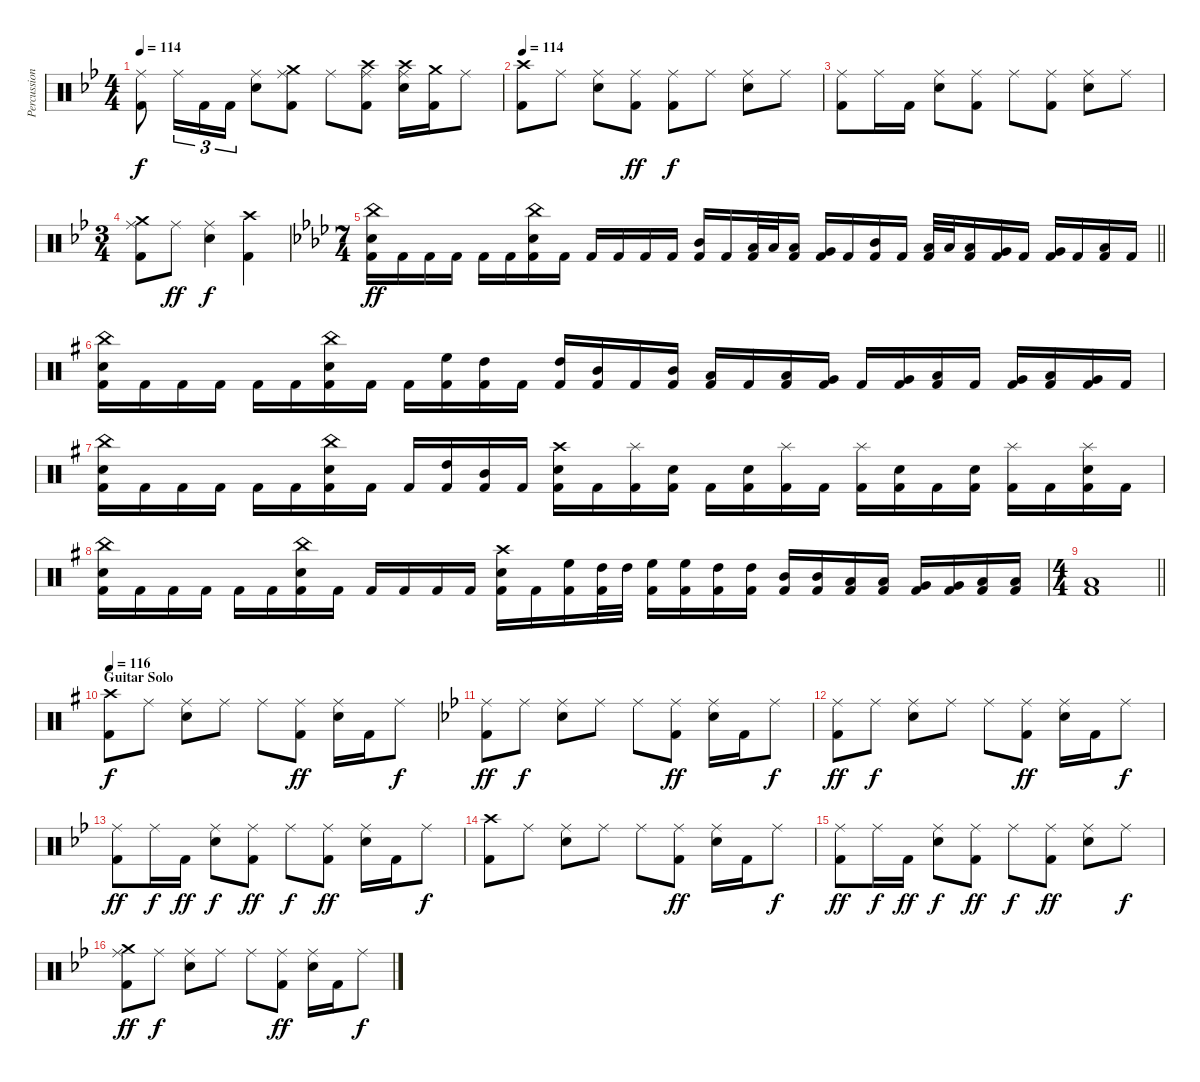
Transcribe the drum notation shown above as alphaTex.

\track ("Percussions" "Percussion") {instrument percussion}
\staff {score}
\articulation defaults
\ts (4 4)
\tempo 114
\clef neutral
\ks bb
("Ride (middle)" "Kick (hit) 2").8{dy f} "Ride (middle)".16{tu (3 2)} "Kick (hit) 2".16{tu (3 2)} "Kick (hit) 2".16{tu (3 2)} ("Ride (middle)" "Snare (hit) 2").8 ("Crash medium (hit)" "Ride (middle)" "Kick (hit) 2").8 "Ride (middle)".8 ("Crash high (hit)" "Ride (middle)" "Kick (hit) 2").8 ("Crash high (hit)" "Ride (middle)" "Snare (hit) 2").16 ("Crash medium (hit)" "Kick (hit) 2").16 "Ride (middle)".8 |
\tempo 114
("Crash high (hit)" "Kick (hit) 2").8 "Ride (middle)".8 ("Ride (middle)" "Snare (hit) 2").8 ("Ride (middle)" "Kick (hit) 2").8{dy ff} ("Ride (middle)" "Kick (hit) 2").8{dy f} "Ride (middle)".8 ("Ride (middle)" "Snare (hit) 2").8 "Ride (middle)".8 |
("Ride (middle)" "Kick (hit) 2").8 "Ride (middle)".16 "Kick (hit) 2".16 ("Ride (middle)" "Snare (hit) 2").8 ("Ride (middle)" "Kick (hit) 2").8 "Ride (middle)".8 ("Ride (middle)" "Kick (hit) 2").8 ("Ride (middle)" "Snare (hit) 2").8 "Ride (middle)".8 |
\ts (3 4)
("Crash medium (hit)" "Ride (middle)" "Kick (hit) 2").8 "Ride (middle)".8{dy ff} ("Ride (middle)" "Snare (hit) 2").4{dy f} ("Crash high (hit)" "Kick (hit) 2").4 |
\ts (7 4)
\barLineRight lightlight
\ks ab
("China (hit)" "Snare (hit) 2" "Kick (hit) 2").16{dy ff} "Kick (hit) 2".16 "Kick (hit) 2".16 "Kick (hit) 2".16 "Kick (hit) 2".16 "Kick (hit) 2".16 ("China (hit)" "Snare (hit) 2" "Kick (hit) 2").16 "Kick (hit) 2".16 "Kick (hit) 2".16 "Kick (hit) 2".16 "Kick (hit) 2".16 "Kick (hit) 2".16 ("Mid Tom (hit)" "Kick (hit) 2").16 "Kick (hit) 2".16 ("Low Tom (hit)" "Kick (hit) 2").32 "Low Tom (hit)".32 ("Low Tom (hit)" "Kick (hit) 2").16 ("Very Low Tom (hit)" "Kick (hit) 2").16 "Kick (hit) 2".16 ("Mid Tom (hit)" "Kick (hit) 2").16 "Kick (hit) 2".16 ("Low Tom (hit)" "Kick (hit) 2").32 "Low Tom (hit)".32 ("Low Tom (hit)" "Kick (hit) 2").16 ("Very Low Tom (hit)" "Kick (hit) 2").16 "Kick (hit) 2".16 ("Very Low Tom (hit)" "Kick (hit) 2").16 "Kick (hit) 2".16 ("Low Floor Tom (hit)" "Kick (hit) 2").16 "Kick (hit) 2".16 |
\ks g
("China (hit)" "Snare (hit) 2" "Kick (hit) 2").16 "Kick (hit) 2".16 "Kick (hit) 2".16 "Kick (hit) 2".16 "Kick (hit) 2".16 "Kick (hit) 2".16 ("China (hit)" "Snare (hit) 2" "Kick (hit) 2").16 "Kick (hit) 2".16 "Kick (hit) 2".16 ("High Floor Tom (hit)" "Kick (hit) 2").16 ("High Tom (hit)" "Kick (hit) 2").16 "Kick (hit) 2".16 ("High Tom (hit)" "Kick (hit) 2").16 ("Mid Tom (hit)" "Kick (hit) 2").16 "Kick (hit) 2".16 ("Mid Tom (hit)" "Kick (hit) 2").16 ("Low Tom (hit)" "Kick (hit) 2").16 "Kick (hit) 2".16 ("Low Tom (hit)" "Kick (hit) 2").16 ("Very Low Tom (hit)" "Kick (hit) 2").16 "Kick (hit) 2".16 ("Very Low Tom (hit)" "Kick (hit) 2").16 ("Low Floor Tom (hit)" "Kick (hit) 2").16 "Kick (hit) 2".16 ("Very Low Tom (hit)" "Kick (hit) 2").16 ("Low Floor Tom (hit)" "Kick (hit) 2").16 ("Very Low Tom (hit)" "Kick (hit) 2").16 "Kick (hit) 2".16 |
("China (hit)" "Snare (hit) 2" "Kick (hit) 2").16 "Kick (hit) 2".16 "Kick (hit) 2".16 "Kick (hit) 2".16 "Kick (hit) 2".16 "Kick (hit) 2".16 ("China (hit)" "Snare (hit) 2" "Kick (hit) 2").16 "Kick (hit) 2".16 "Kick (hit) 2".16 ("High Tom (hit)" "Kick (hit) 2").16 ("Mid Tom (hit)" "Kick (hit) 2").16 "Kick (hit) 2".16 ("Crash high (hit)" "Snare (hit) 2" "Kick (hit) 2").16 "Kick (hit) 2".16 ("Splash (hit)" "Kick (hit) 2").16 ("Snare (hit) 2" "Kick (hit) 2").16 "Kick (hit) 2".16 ("Snare (hit) 2" "Kick (hit) 2").16 ("Splash (hit)" "Kick (hit) 2").16 "Kick (hit) 2".16 ("Splash (hit)" "Kick (hit) 2").16 ("Snare (hit) 2" "Kick (hit) 2").16 "Kick (hit) 2".16 ("Snare (hit) 2" "Kick (hit) 2").16 ("Splash (hit)" "Kick (hit) 2").16 "Kick (hit) 2".16 ("Splash (hit)" "Snare (hit) 2" "Kick (hit) 2").16 "Kick (hit) 2".16 |
("China (hit)" "Snare (hit) 2" "Kick (hit) 2").16 "Kick (hit) 2".16 "Kick (hit) 2".16 "Kick (hit) 2".16 "Kick (hit) 2".16 "Kick (hit) 2".16 ("China (hit)" "Snare (hit) 2" "Kick (hit) 2").16 "Kick (hit) 2".16 "Kick (hit) 2".16 "Kick (hit) 2".16 "Kick (hit) 2".16 "Kick (hit) 2".16 ("Crash high (hit)" "Snare (hit) 2" "Kick (hit) 2").16 "Kick (hit) 2".16 ("High Floor Tom (hit)" "Kick (hit) 2").16 ("High Tom (hit)" "Kick (hit) 2").32 "High Tom (hit)".32 ("High Floor Tom (hit)" "Kick (hit) 2").16 ("High Floor Tom (hit)" "Kick (hit) 2").16 ("High Tom (hit)" "Kick (hit) 2").16 ("High Tom (hit)" "Kick (hit) 2").16 ("Mid Tom (hit)" "Kick (hit) 2").16 ("Mid Tom (hit)" "Kick (hit) 2").16 ("Low Tom (hit)" "Kick (hit) 2").16 ("Low Tom (hit)" "Kick (hit) 2").16 ("Very Low Tom (hit)" "Kick (hit) 2").16 ("Very Low Tom (hit)" "Kick (hit) 2").16 ("Low Floor Tom (hit)" "Kick (hit) 2").16 ("Low Floor Tom (hit)" "Kick (hit) 2").16 |
\ts (4 4)
\barLineRight lightlight
("Low Floor Tom (hit)" "Kick (hit) 2").1 |
\section ("" "Guitar Solo")
\tempo 116
("Crash high (hit)" "Kick (hit) 2").8{dy f} "Ride (middle)".8 ("Ride (middle)" "Snare (hit) 2").8 "Ride (middle)".8 "Ride (middle)".8 ("Ride (middle)" "Kick (hit) 2").8{dy ff} ("Ride (middle)" "Snare (hit) 2").16 "Kick (hit) 2".16 "Ride (middle)".8{dy f} |
\ks bb
("Ride (middle)" "Kick (hit) 2").8{dy ff} "Ride (middle)".8{dy f} ("Ride (middle)" "Snare (hit) 2").8 "Ride (middle)".8 "Ride (middle)".8 ("Ride (middle)" "Kick (hit) 2").8{dy ff} ("Ride (middle)" "Snare (hit) 2").16 "Kick (hit) 2".16 "Ride (middle)".8{dy f} |
("Ride (middle)" "Kick (hit) 2").8{dy ff} "Ride (middle)".8{dy f} ("Ride (middle)" "Snare (hit) 2").8 "Ride (middle)".8 "Ride (middle)".8 ("Ride (middle)" "Kick (hit) 2").8{dy ff} ("Ride (middle)" "Snare (hit) 2").16 "Kick (hit) 2".16 "Ride (middle)".8{dy f} |
("Ride (middle)" "Kick (hit) 2").8{dy ff} "Ride (middle)".16{dy f} "Kick (hit) 2".16{dy ff} ("Ride (middle)" "Snare (hit) 2").8{dy f} ("Ride (middle)" "Kick (hit) 2").8{dy ff} "Ride (middle)".8{dy f} ("Ride (middle)" "Kick (hit) 2").8{dy ff} ("Ride (middle)" "Snare (hit) 2").16 "Kick (hit) 2".16 "Ride (middle)".8{dy f} |
("Crash high (hit)" "Kick (hit) 2").8 "Ride (middle)".8 ("Ride (middle)" "Snare (hit) 2").8 "Ride (middle)".8 "Ride (middle)".8 ("Ride (middle)" "Kick (hit) 2").8{dy ff} ("Ride (middle)" "Snare (hit) 2").16 "Kick (hit) 2".16 "Ride (middle)".8{dy f} |
("Ride (middle)" "Kick (hit) 2").8{dy ff} "Ride (middle)".16{dy f} "Kick (hit) 2".16{dy ff} ("Ride (middle)" "Snare (hit) 2").8{dy f} ("Ride (middle)" "Kick (hit) 2").8{dy ff} "Ride (middle)".8{dy f} ("Ride (middle)" "Kick (hit) 2").8{dy ff} ("Ride (middle)" "Snare (hit) 2").8 "Ride (middle)".8{dy f} |
("Crash medium (hit)" "Ride (middle)" "Kick (hit) 2").8{dy ff} "Ride (middle)".8{dy f} ("Ride (middle)" "Snare (hit) 2").8 "Ride (middle)".8 "Ride (middle)".8 ("Ride (middle)" "Kick (hit) 2").8{dy ff} ("Ride (middle)" "Snare (hit) 2").16 "Kick (hit) 2".16 "Ride (middle)".8{dy f}
